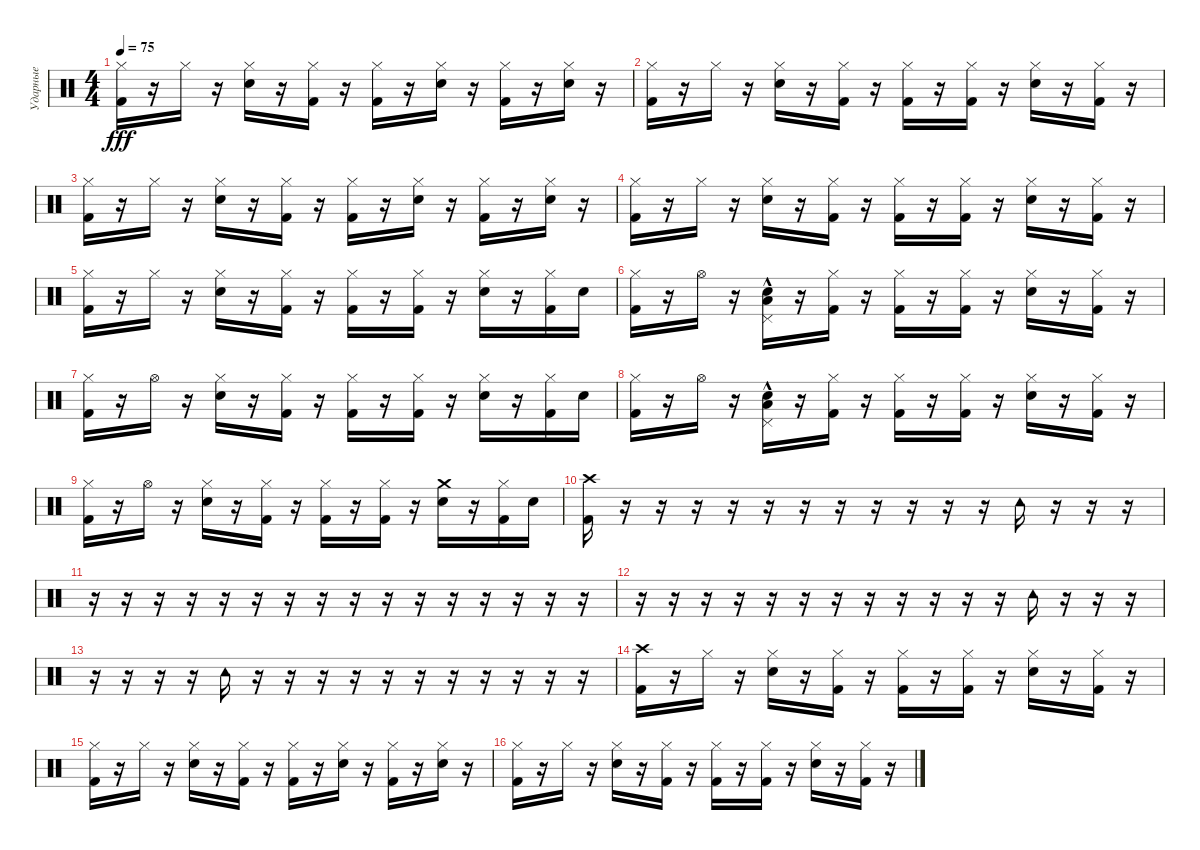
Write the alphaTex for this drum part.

\track ("Ударные" "Ударные") {instrument percussion}
\staff {score}
\articulation defaults
\ts (4 4)
\tempo 75
\clef neutral
\ks c
("Hi-Hat (closed)" "Kick (hit) 2").16{dy fff} r.16 "Hi-Hat (closed)".16 r.16 ("Hi-Hat (closed)" "Electric Snare (hit)").16 r.16 ("Hi-Hat (closed)" "Kick (hit) 2").16 r.16 ("Hi-Hat (closed)" "Kick (hit) 2").16 r.16 ("Hi-Hat (closed)" "Electric Snare (hit)").16 r.16 ("Hi-Hat (closed)" "Kick (hit) 2").16 r.16 ("Hi-Hat (closed)" "Electric Snare (hit)").16 r.16 |
("Hi-Hat (closed)" "Kick (hit) 2").16 r.16 "Hi-Hat (closed)".16 r.16 ("Hi-Hat (closed)" "Electric Snare (hit)").16 r.16 ("Hi-Hat (closed)" "Kick (hit) 2").16 r.16 ("Hi-Hat (closed)" "Kick (hit) 2").16 r.16 ("Hi-Hat (closed)" "Kick (hit) 2").16 r.16 ("Hi-Hat (closed)" "Electric Snare (hit)").16 r.16 ("Hi-Hat (closed)" "Kick (hit) 2").16 r.16 |
("Hi-Hat (closed)" "Kick (hit) 2").16 r.16 "Hi-Hat (closed)".16 r.16 ("Hi-Hat (closed)" "Electric Snare (hit)").16 r.16 ("Hi-Hat (closed)" "Kick (hit) 2").16 r.16 ("Hi-Hat (closed)" "Kick (hit) 2").16 r.16 ("Hi-Hat (closed)" "Electric Snare (hit)").16 r.16 ("Hi-Hat (closed)" "Kick (hit) 2").16 r.16 ("Hi-Hat (closed)" "Electric Snare (hit)").16 r.16 |
("Hi-Hat (closed)" "Kick (hit) 2").16 r.16 "Hi-Hat (closed)".16 r.16 ("Hi-Hat (closed)" "Electric Snare (hit)").16 r.16 ("Hi-Hat (closed)" "Kick (hit) 2").16 r.16 ("Hi-Hat (closed)" "Kick (hit) 2").16 r.16 ("Hi-Hat (closed)" "Kick (hit) 2").16 r.16 ("Hi-Hat (closed)" "Electric Snare (hit)").16 r.16 ("Hi-Hat (closed)" "Kick (hit) 2").16 r.16 |
("Hi-Hat (closed)" "Kick (hit) 2").16 r.16 "Hi-Hat (closed)".16 r.16 ("Hi-Hat (closed)" "Electric Snare (hit)").16 r.16 ("Hi-Hat (closed)" "Kick (hit) 2").16 r.16 ("Hi-Hat (closed)" "Kick (hit) 2").16 r.16 ("Hi-Hat (closed)" "Kick (hit) 2").16 r.16 ("Hi-Hat (closed)" "Electric Snare (hit)").16 r.16 ("Hi-Hat (closed)" "Kick (hit) 2").16 "Electric Snare (hit)".16 |
("Hi-Hat (closed)" "Kick (hit) 2").16 r.16 "Hi-Hat (open)".16 r.16 ("Pedal Hi-Hat (hit)"{hac} "Electric Snare (hit)"{hac} "Low Floor Tom (hit)"{hac}).16 r.16 ("Hi-Hat (closed)" "Kick (hit) 2").16 r.16 ("Hi-Hat (closed)" "Kick (hit) 2").16 r.16 ("Hi-Hat (closed)" "Kick (hit) 2").16 r.16 ("Hi-Hat (closed)" "Electric Snare (hit)").16 r.16 ("Hi-Hat (closed)" "Kick (hit) 2").16 r.16 |
("Hi-Hat (closed)" "Kick (hit) 2").16 r.16 "Hi-Hat (open)".16 r.16 ("Hi-Hat (closed)" "Electric Snare (hit)").16 r.16 ("Hi-Hat (closed)" "Kick (hit) 2").16 r.16 ("Hi-Hat (closed)" "Kick (hit) 2").16 r.16 ("Hi-Hat (closed)" "Kick (hit) 2").16 r.16 ("Hi-Hat (closed)" "Electric Snare (hit)").16 r.16 ("Hi-Hat (closed)" "Kick (hit) 2").16 "Electric Snare (hit)".16 |
("Hi-Hat (closed)" "Kick (hit) 2").16 r.16 "Hi-Hat (open)".16 r.16 ("Pedal Hi-Hat (hit)"{hac} "Electric Snare (hit)"{hac} "Low Floor Tom (hit)"{hac}).16 r.16 ("Hi-Hat (closed)" "Kick (hit) 2").16 r.16 ("Hi-Hat (closed)" "Kick (hit) 2").16 r.16 ("Hi-Hat (closed)" "Kick (hit) 2").16 r.16 ("Hi-Hat (closed)" "Electric Snare (hit)").16 r.16 ("Hi-Hat (closed)" "Kick (hit) 2").16 r.16 |
("Hi-Hat (closed)" "Kick (hit) 2").16 r.16 "Hi-Hat (open)".16 r.16 ("Hi-Hat (closed)" "Electric Snare (hit)").16 r.16 ("Hi-Hat (closed)" "Kick (hit) 2").16 r.16 ("Hi-Hat (closed)" "Kick (hit) 2").16 r.16 ("Hi-Hat (closed)" "Kick (hit) 2").16 r.16 ("Crash medium (hit)" "Electric Snare (hit)").16 r.16 ("Hi-Hat (closed)" "Kick (hit) 2").16 "Electric Snare (hit)".16 |
("Crash high (hit)" "Kick (hit) 2").16 r.16 r.16 r.16 r.16 r.16 r.16 r.16 r.16 r.16 r.16 r.16 "Tambourine (hit)".16 r.16 r.16 r.16 |
r.16 r.16 r.16 r.16 r.16 r.16 r.16 r.16 r.16 r.16 r.16 r.16 r.16 r.16 r.16 r.16 |
r.16 r.16 r.16 r.16 r.16 r.16 r.16 r.16 r.16 r.16 r.16 r.16 "Tambourine (hit)".16 r.16 r.16 r.16 |
r.16 r.16 r.16 r.16 "Tambourine (hit)".16 r.16 r.16 r.16 r.16 r.16 r.16 r.16 r.16 r.16 r.16 r.16 |
("Crash high (hit)" "Kick (hit) 2").16 r.16 "Hi-Hat (closed)".16 r.16 ("Hi-Hat (closed)" "Electric Snare (hit)").16 r.16 ("Hi-Hat (closed)" "Kick (hit) 2").16 r.16 ("Hi-Hat (closed)" "Kick (hit) 2").16 r.16 ("Hi-Hat (closed)" "Kick (hit) 2").16 r.16 ("Hi-Hat (closed)" "Electric Snare (hit)").16 r.16 ("Hi-Hat (closed)" "Kick (hit) 2").16 r.16 |
("Hi-Hat (closed)" "Kick (hit) 2").16 r.16 "Hi-Hat (closed)".16 r.16 ("Hi-Hat (closed)" "Electric Snare (hit)").16 r.16 ("Hi-Hat (closed)" "Kick (hit) 2").16 r.16 ("Hi-Hat (closed)" "Kick (hit) 2").16 r.16 ("Hi-Hat (closed)" "Electric Snare (hit)").16 r.16 ("Hi-Hat (closed)" "Kick (hit) 2").16 r.16 ("Hi-Hat (closed)" "Electric Snare (hit)").16 r.16 |
("Hi-Hat (closed)" "Kick (hit) 2").16 r.16 "Hi-Hat (closed)".16 r.16 ("Hi-Hat (closed)" "Electric Snare (hit)").16 r.16 ("Hi-Hat (closed)" "Kick (hit) 2").16 r.16 ("Hi-Hat (closed)" "Kick (hit) 2").16 r.16 ("Hi-Hat (closed)" "Kick (hit) 2").16 r.16 ("Hi-Hat (closed)" "Electric Snare (hit)").16 r.16 ("Hi-Hat (closed)" "Kick (hit) 2").16 r.16
